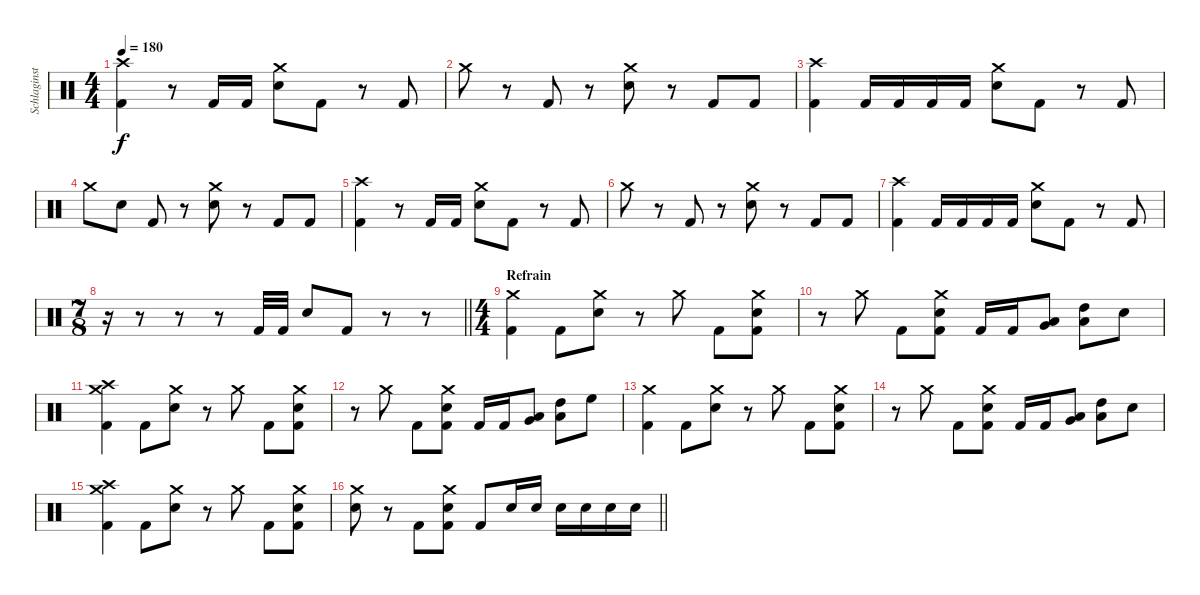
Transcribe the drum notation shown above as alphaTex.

\track ("Schlaginstrumente - Auswahl" "Schlaginst") {instrument percussion}
\staff {score}
\articulation defaults
\ts (4 4)
\tempo 180
\clef neutral
\ks c
("Kick (hit) 2" "Crash high (hit)").4{dy f} r.8 "Kick (hit) 2".16 "Kick (hit) 2".16 ("Electric Snare (hit)" "Crash medium (hit)").8 "Kick (hit) 2".8 r.8 "Kick (hit) 2".8 |
"Crash medium (hit)".8 r.8 "Kick (hit) 2".8 r.8 ("Electric Snare (hit)" "Crash medium (hit)").8 r.8 "Kick (hit) 2".8 "Kick (hit) 2".8 |
("Kick (hit) 2" "Crash high (hit)").4 "Kick (hit) 2".16 "Kick (hit) 2".16 "Kick (hit) 2".16 "Kick (hit) 2".16 ("Electric Snare (hit)" "Crash medium (hit)").8 "Kick (hit) 2".8 r.8 "Kick (hit) 2".8 |
"Crash medium (hit)".8 "Electric Snare (hit)".8 "Kick (hit) 2".8 r.8 ("Electric Snare (hit)" "Crash medium (hit)").8 r.8 "Kick (hit) 2".8 "Kick (hit) 2".8 |
("Kick (hit) 2" "Crash high (hit)").4 r.8 "Kick (hit) 2".16 "Kick (hit) 2".16 ("Electric Snare (hit)" "Crash medium (hit)").8 "Kick (hit) 2".8 r.8 "Kick (hit) 2".8 |
"Crash medium (hit)".8 r.8 "Kick (hit) 2".8 r.8 ("Electric Snare (hit)" "Crash medium (hit)").8 r.8 "Kick (hit) 2".8 "Kick (hit) 2".8 |
("Kick (hit) 2" "Crash high (hit)").4 "Kick (hit) 2".16 "Kick (hit) 2".16 "Kick (hit) 2".16 "Kick (hit) 2".16 ("Electric Snare (hit)" "Crash medium (hit)").8 "Kick (hit) 2".8 r.8 "Kick (hit) 2".8 |
\ts (7 8)
\barLineRight lightlight
r.16 r.8 r.8 r.8 "Kick (hit) 2".32 "Kick (hit) 2".32 "Electric Snare (hit)".8 "Kick (hit) 2".8 r.8 r.8 |
\ts (4 4)
\section ("" "Refrain")
("Crash medium (hit)" "Kick (hit) 2").4 "Kick (hit) 2".8 ("Crash medium (hit)" "Electric Snare (hit)").8 r.8 "Crash medium (hit)".8 "Kick (hit) 2".8 ("Crash medium (hit)" "Electric Snare (hit)" "Kick (hit) 2").8 |
r.8 "Crash medium (hit)".8 "Kick (hit) 2".8 ("Crash medium (hit)" "Electric Snare (hit)" "Kick (hit) 2").8 "Kick (hit) 2".16 "Kick (hit) 2".16 ("Very Low Tom (hit)" "Low Tom (hit)").8 ("High Tom (hit)" "Low Tom (hit)").8 "Electric Snare (hit)".8 |
("Crash medium (hit)" "Crash high (hit)" "Kick (hit) 2").4 "Kick (hit) 2".8 ("Crash medium (hit)" "Electric Snare (hit)").8 r.8 "Crash medium (hit)".8 "Kick (hit) 2".8 ("Crash medium (hit)" "Electric Snare (hit)" "Kick (hit) 2").8 |
r.8 "Crash medium (hit)".8 "Kick (hit) 2".8 ("Crash medium (hit)" "Electric Snare (hit)" "Kick (hit) 2").8 "Kick (hit) 2".16 "Kick (hit) 2".16 ("Very Low Tom (hit)" "Low Tom (hit)").8 ("High Tom (hit)" "Low Tom (hit)").8 "High Floor Tom (hit)".8 |
("Crash medium (hit)" "Kick (hit) 2").4 "Kick (hit) 2".8 ("Crash medium (hit)" "Electric Snare (hit)").8 r.8 "Crash medium (hit)".8 "Kick (hit) 2".8 ("Crash medium (hit)" "Electric Snare (hit)" "Kick (hit) 2").8 |
r.8 "Crash medium (hit)".8 "Kick (hit) 2".8 ("Crash medium (hit)" "Electric Snare (hit)" "Kick (hit) 2").8 "Kick (hit) 2".16 "Kick (hit) 2".16 ("Very Low Tom (hit)" "Low Tom (hit)").8 ("High Tom (hit)" "Low Tom (hit)").8 "Electric Snare (hit)".8 |
("Crash medium (hit)" "Crash high (hit)" "Kick (hit) 2").4 "Kick (hit) 2".8 ("Crash medium (hit)" "Electric Snare (hit)").8 r.8 "Crash medium (hit)".8 "Kick (hit) 2".8 ("Crash medium (hit)" "Electric Snare (hit)" "Kick (hit) 2").8 |
\barLineRight lightlight
("Crash medium (hit)" "Electric Snare (hit)").8 r.8 "Kick (hit) 2".8 ("Crash medium (hit)" "Electric Snare (hit)" "Kick (hit) 2").8 "Kick (hit) 2".8 "Electric Snare (hit)".16 "Electric Snare (hit)".16 "Electric Snare (hit)".16 "Electric Snare (hit)".16 "Electric Snare (hit)".16 "Electric Snare (hit)".16
